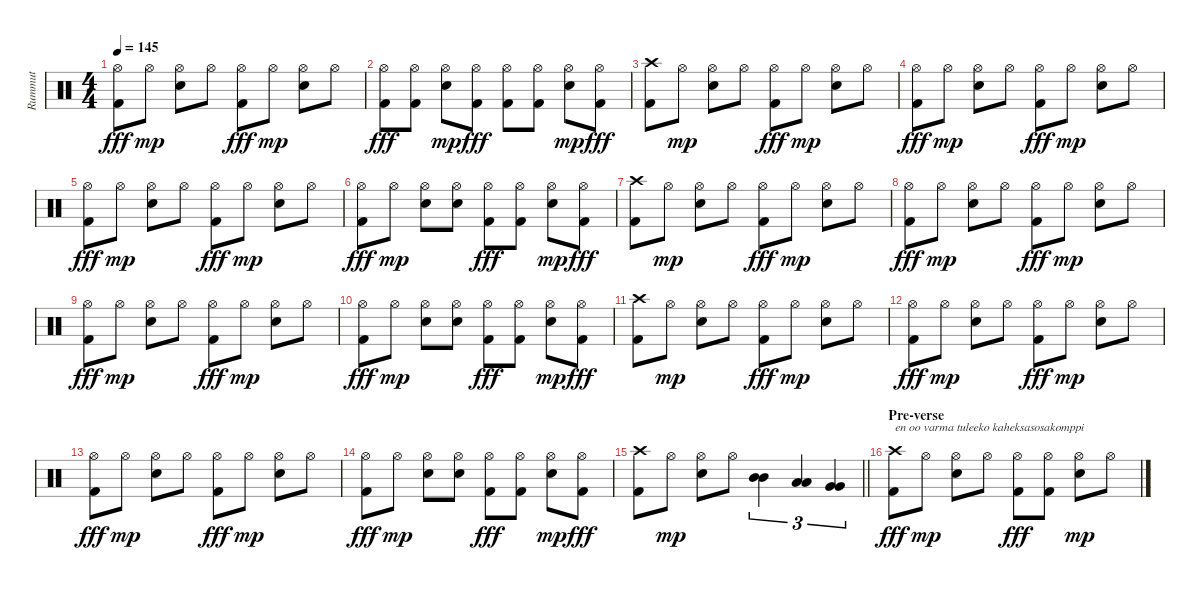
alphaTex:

\track ("Rummut" "Rummut") {instrument percussion}
\staff {score}
\articulation defaults
\ts (4 4)
\tempo 145
\clef neutral
\ks c
("Hi-Hat (open)" "Kick (hit) 2").8{dy fff} "Hi-Hat (open)".8{dy mp} ("Hi-Hat (open)" "Snare (hit) 2").8 "Hi-Hat (open)".8 ("Hi-Hat (open)" "Kick (hit) 2").8{dy fff} "Hi-Hat (open)".8{dy mp} ("Hi-Hat (open)" "Snare (hit) 2").8 "Hi-Hat (open)".8 |
("Hi-Hat (open)" "Kick (hit) 2").8{dy fff} ("Hi-Hat (open)" "Kick (hit) 2").8 ("Hi-Hat (open)" "Snare (hit) 2").8{dy mp} ("Hi-Hat (open)" "Kick (hit) 2").8{dy fff} ("Hi-Hat (open)" "Kick (hit) 2").8 ("Hi-Hat (open)" "Kick (hit) 2").8 ("Hi-Hat (open)" "Snare (hit) 2").8{dy mp} ("Hi-Hat (open)" "Kick (hit) 2").8{dy fff} |
("Crash high (hit)" "Kick (hit) 2").8 "Hi-Hat (open)".8{dy mp} ("Hi-Hat (open)" "Snare (hit) 2").8 "Hi-Hat (open)".8 ("Hi-Hat (open)" "Kick (hit) 2").8{dy fff} "Hi-Hat (open)".8{dy mp} ("Hi-Hat (open)" "Snare (hit) 2").8 "Hi-Hat (open)".8 |
("Hi-Hat (open)" "Kick (hit) 2").8{dy fff} "Hi-Hat (open)".8{dy mp} ("Hi-Hat (open)" "Snare (hit) 2").8 "Hi-Hat (open)".8 ("Hi-Hat (open)" "Kick (hit) 2").8{dy fff} "Hi-Hat (open)".8{dy mp} ("Hi-Hat (open)" "Snare (hit) 2").8 "Hi-Hat (open)".8 |
("Hi-Hat (open)" "Kick (hit) 2").8{dy fff} "Hi-Hat (open)".8{dy mp} ("Hi-Hat (open)" "Snare (hit) 2").8 "Hi-Hat (open)".8 ("Hi-Hat (open)" "Kick (hit) 2").8{dy fff} "Hi-Hat (open)".8{dy mp} ("Hi-Hat (open)" "Snare (hit) 2").8 "Hi-Hat (open)".8 |
("Hi-Hat (open)" "Kick (hit) 2").8{dy fff} "Hi-Hat (open)".8{dy mp} ("Hi-Hat (open)" "Snare (hit) 2").8 ("Hi-Hat (open)" "Snare (hit) 2").8 ("Hi-Hat (open)" "Kick (hit) 2").8{dy fff} ("Hi-Hat (open)" "Kick (hit) 2").8 ("Hi-Hat (open)" "Snare (hit) 2").8{dy mp} ("Hi-Hat (open)" "Kick (hit) 2").8{dy fff} |
("Crash high (hit)" "Kick (hit) 2").8 "Hi-Hat (open)".8{dy mp} ("Hi-Hat (open)" "Snare (hit) 2").8 "Hi-Hat (open)".8 ("Hi-Hat (open)" "Kick (hit) 2").8{dy fff} "Hi-Hat (open)".8{dy mp} ("Hi-Hat (open)" "Snare (hit) 2").8 "Hi-Hat (open)".8 |
("Hi-Hat (open)" "Kick (hit) 2").8{dy fff} "Hi-Hat (open)".8{dy mp} ("Hi-Hat (open)" "Snare (hit) 2").8 "Hi-Hat (open)".8 ("Hi-Hat (open)" "Kick (hit) 2").8{dy fff} "Hi-Hat (open)".8{dy mp} ("Hi-Hat (open)" "Snare (hit) 2").8 "Hi-Hat (open)".8 |
("Hi-Hat (open)" "Kick (hit) 2").8{dy fff} "Hi-Hat (open)".8{dy mp} ("Hi-Hat (open)" "Snare (hit) 2").8 "Hi-Hat (open)".8 ("Hi-Hat (open)" "Kick (hit) 2").8{dy fff} "Hi-Hat (open)".8{dy mp} ("Hi-Hat (open)" "Snare (hit) 2").8 "Hi-Hat (open)".8 |
("Hi-Hat (open)" "Kick (hit) 2").8{dy fff} "Hi-Hat (open)".8{dy mp} ("Hi-Hat (open)" "Snare (hit) 2").8 ("Hi-Hat (open)" "Snare (hit) 2").8 ("Hi-Hat (open)" "Kick (hit) 2").8{dy fff} ("Hi-Hat (open)" "Kick (hit) 2").8 ("Hi-Hat (open)" "Snare (hit) 2").8{dy mp} ("Hi-Hat (open)" "Kick (hit) 2").8{dy fff} |
("Crash high (hit)" "Kick (hit) 2").8 "Hi-Hat (open)".8{dy mp} ("Hi-Hat (open)" "Snare (hit) 2").8 "Hi-Hat (open)".8 ("Hi-Hat (open)" "Kick (hit) 2").8{dy fff} "Hi-Hat (open)".8{dy mp} ("Hi-Hat (open)" "Snare (hit) 2").8 "Hi-Hat (open)".8 |
("Hi-Hat (open)" "Kick (hit) 2").8{dy fff} "Hi-Hat (open)".8{dy mp} ("Hi-Hat (open)" "Snare (hit) 2").8 "Hi-Hat (open)".8 ("Hi-Hat (open)" "Kick (hit) 2").8{dy fff} "Hi-Hat (open)".8{dy mp} ("Hi-Hat (open)" "Snare (hit) 2").8 "Hi-Hat (open)".8 |
("Hi-Hat (open)" "Kick (hit) 2").8{dy fff} "Hi-Hat (open)".8{dy mp} ("Hi-Hat (open)" "Snare (hit) 2").8 "Hi-Hat (open)".8 ("Hi-Hat (open)" "Kick (hit) 2").8{dy fff} "Hi-Hat (open)".8{dy mp} ("Hi-Hat (open)" "Snare (hit) 2").8 "Hi-Hat (open)".8 |
("Hi-Hat (open)" "Kick (hit) 2").8{dy fff} "Hi-Hat (open)".8{dy mp} ("Hi-Hat (open)" "Snare (hit) 2").8 ("Hi-Hat (open)" "Snare (hit) 2").8 ("Hi-Hat (open)" "Kick (hit) 2").8{dy fff} ("Hi-Hat (open)" "Kick (hit) 2").8 ("Hi-Hat (open)" "Snare (hit) 2").8{dy mp} ("Hi-Hat (open)" "Kick (hit) 2").8{dy fff} |
\barLineRight lightlight
("Crash high (hit)" "Kick (hit) 2").8 "Hi-Hat (open)".8{dy mp} ("Hi-Hat (open)" "Snare (hit) 2").8 "Hi-Hat (open)".8 ("Mid Tom (hit)" "Mid Tom (hit)").4{tu (3 2)} ("Low Tom (hit)" "Low Tom (hit)").4{tu (3 2)} ("Very Low Tom (hit)" "Very Low Tom (hit)").4{tu (3 2)} |
\section ("" "Pre-verse")
("Crash high (hit)" "Kick (hit) 2").8{txt "en oo varma tuleeko kaheksasosakomppi" dy fff} "Hi-Hat (open)".8{dy mp} ("Hi-Hat (open)" "Snare (hit) 2").8 "Hi-Hat (open)".8 ("Hi-Hat (open)" "Kick (hit) 2").8{dy fff} ("Hi-Hat (open)" "Kick (hit) 2").8 ("Hi-Hat (open)" "Snare (hit) 2").8{dy mp} "Hi-Hat (open)".8
